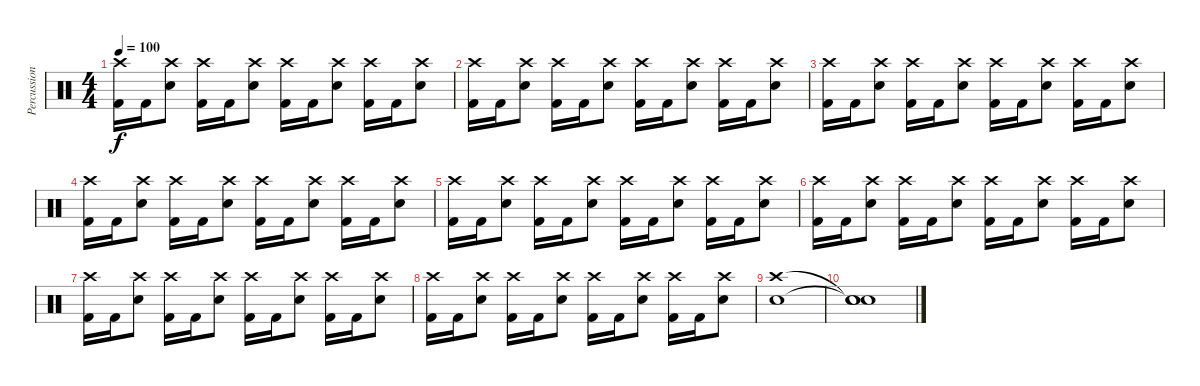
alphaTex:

\track ("Percussion" "Percussion") {instrument percussion}
\staff {score}
\articulation defaults
\ts (4 4)
\tempo 100
\clef neutral
\ks c
("Crash high (hit)" "Kick (hit) 2").16{dy f} "Kick (hit) 2".16 ("Crash high (hit)" "Electric Snare (hit)").8 ("Crash high (hit)" "Kick (hit) 2").16 "Kick (hit) 2".16 ("Crash high (hit)" "Electric Snare (hit)").8 ("Crash high (hit)" "Kick (hit) 2").16 "Kick (hit) 2".16 ("Crash high (hit)" "Electric Snare (hit)").8 ("Crash high (hit)" "Kick (hit) 2").16 "Kick (hit) 2".16 ("Crash high (hit)" "Electric Snare (hit)").8 |
("Crash high (hit)" "Kick (hit) 2").16 "Kick (hit) 2".16 ("Crash high (hit)" "Electric Snare (hit)").8 ("Crash high (hit)" "Kick (hit) 2").16 "Kick (hit) 2".16 ("Crash high (hit)" "Electric Snare (hit)").8 ("Crash high (hit)" "Kick (hit) 2").16 "Kick (hit) 2".16 ("Crash high (hit)" "Electric Snare (hit)").8 ("Crash high (hit)" "Kick (hit) 2").16 "Kick (hit) 2".16 ("Crash high (hit)" "Electric Snare (hit)").8 |
("Crash high (hit)" "Kick (hit) 2").16 "Kick (hit) 2".16 ("Crash high (hit)" "Electric Snare (hit)").8 ("Crash high (hit)" "Kick (hit) 2").16 "Kick (hit) 2".16 ("Crash high (hit)" "Electric Snare (hit)").8 ("Crash high (hit)" "Kick (hit) 2").16 "Kick (hit) 2".16 ("Crash high (hit)" "Electric Snare (hit)").8 ("Crash high (hit)" "Kick (hit) 2").16 "Kick (hit) 2".16 ("Crash high (hit)" "Electric Snare (hit)").8 |
("Crash high (hit)" "Kick (hit) 2").16 "Kick (hit) 2".16 ("Crash high (hit)" "Electric Snare (hit)").8 ("Crash high (hit)" "Kick (hit) 2").16 "Kick (hit) 2".16 ("Crash high (hit)" "Electric Snare (hit)").8 ("Crash high (hit)" "Kick (hit) 2").16 "Kick (hit) 2".16 ("Crash high (hit)" "Electric Snare (hit)").8 ("Crash high (hit)" "Kick (hit) 2").16 "Kick (hit) 2".16 ("Crash high (hit)" "Electric Snare (hit)").8 |
("Crash high (hit)" "Kick (hit) 2").16 "Kick (hit) 2".16 ("Crash high (hit)" "Electric Snare (hit)").8 ("Crash high (hit)" "Kick (hit) 2").16 "Kick (hit) 2".16 ("Crash high (hit)" "Electric Snare (hit)").8 ("Crash high (hit)" "Kick (hit) 2").16 "Kick (hit) 2".16 ("Crash high (hit)" "Electric Snare (hit)").8 ("Crash high (hit)" "Kick (hit) 2").16 "Kick (hit) 2".16 ("Crash high (hit)" "Electric Snare (hit)").8 |
("Crash high (hit)" "Kick (hit) 2").16 "Kick (hit) 2".16 ("Crash high (hit)" "Electric Snare (hit)").8 ("Crash high (hit)" "Kick (hit) 2").16 "Kick (hit) 2".16 ("Crash high (hit)" "Electric Snare (hit)").8 ("Crash high (hit)" "Kick (hit) 2").16 "Kick (hit) 2".16 ("Crash high (hit)" "Electric Snare (hit)").8 ("Crash high (hit)" "Kick (hit) 2").16 "Kick (hit) 2".16 ("Crash high (hit)" "Electric Snare (hit)").8 |
("Crash high (hit)" "Kick (hit) 2").16 "Kick (hit) 2".16 ("Crash high (hit)" "Electric Snare (hit)").8 ("Crash high (hit)" "Kick (hit) 2").16 "Kick (hit) 2".16 ("Crash high (hit)" "Electric Snare (hit)").8 ("Crash high (hit)" "Kick (hit) 2").16 "Kick (hit) 2".16 ("Crash high (hit)" "Electric Snare (hit)").8 ("Crash high (hit)" "Kick (hit) 2").16 "Kick (hit) 2".16 ("Crash high (hit)" "Electric Snare (hit)").8 |
("Crash high (hit)" "Kick (hit) 2").16 "Kick (hit) 2".16 ("Crash high (hit)" "Electric Snare (hit)").8 ("Crash high (hit)" "Kick (hit) 2").16 "Kick (hit) 2".16 ("Crash high (hit)" "Electric Snare (hit)").8 ("Crash high (hit)" "Kick (hit) 2").16 "Kick (hit) 2".16 ("Crash high (hit)" "Electric Snare (hit)").8 ("Crash high (hit)" "Kick (hit) 2").16 "Kick (hit) 2".16 ("Crash high (hit)" "Electric Snare (hit)").8 |
("Crash high (hit)" "Electric Snare (hit)").1 |
("Snare (hit)"{t} "Snare (hit)"{t} "Snare (hit)").1
